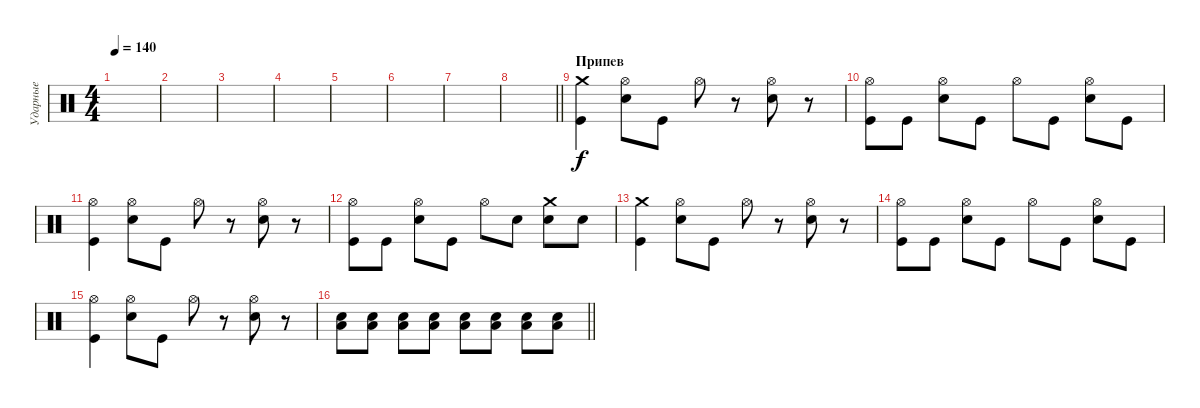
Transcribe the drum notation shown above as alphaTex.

\track ("Ударные" "Ударные") {instrument percussion}
\staff {score}
\articulation defaults
\ts (4 4)
\tempo 140
\clef neutral
\ks c
|
|
|
|
|
|
|
\barLineRight lightlight
|
\section ("" "Припев")
("Kick (hit)" "Crash medium (hit)").4 ("Electric Snare (hit)" "Hi-Hat (open)").8 "Kick (hit)".8 "Hi-Hat (open)".8 r.8 ("Electric Snare (hit)" "Hi-Hat (open)").8 r.8 |
("Kick (hit)" "Hi-Hat (open)").8 "Kick (hit)".8 ("Hi-Hat (open)" "Electric Snare (hit)").8 "Kick (hit)".8 "Hi-Hat (open)".8 "Kick (hit)".8 ("Electric Snare (hit)" "Hi-Hat (open)").8 "Kick (hit)".8 |
("Kick (hit)" "Hi-Hat (open)").4 ("Electric Snare (hit)" "Hi-Hat (open)").8 "Kick (hit)".8 "Hi-Hat (open)".8 r.8 ("Electric Snare (hit)" "Hi-Hat (open)").8 r.8 |
("Kick (hit)" "Hi-Hat (open)").8 "Kick (hit)".8 ("Hi-Hat (open)" "Electric Snare (hit)").8 "Kick (hit)".8 "Hi-Hat (open)".8 "Electric Snare (hit)".8 ("Electric Snare (hit)" "Crash medium (hit)").8 "Electric Snare (hit)".8 |
("Kick (hit)" "Crash medium (hit)").4 ("Electric Snare (hit)" "Hi-Hat (open)").8 "Kick (hit)".8 "Hi-Hat (open)".8 r.8 ("Electric Snare (hit)" "Hi-Hat (open)").8 r.8 |
("Kick (hit)" "Hi-Hat (open)").8 "Kick (hit)".8 ("Hi-Hat (open)" "Electric Snare (hit)").8 "Kick (hit)".8 "Hi-Hat (open)".8 "Kick (hit)".8 ("Electric Snare (hit)" "Hi-Hat (open)").8 "Kick (hit)".8 |
("Kick (hit)" "Hi-Hat (open)").4 ("Electric Snare (hit)" "Hi-Hat (open)").8 "Kick (hit)".8 "Hi-Hat (open)".8 r.8 ("Electric Snare (hit)" "Hi-Hat (open)").8 r.8 |
\barLineRight lightlight
("Low Floor Tom (hit)" "Electric Snare (hit)").8 ("Low Floor Tom (hit)" "Electric Snare (hit)").8 ("Low Floor Tom (hit)" "Electric Snare (hit)").8 ("Low Floor Tom (hit)" "Electric Snare (hit)").8 ("Low Floor Tom (hit)" "Electric Snare (hit)").8 ("Low Floor Tom (hit)" "Electric Snare (hit)").8 ("Low Floor Tom (hit)" "Electric Snare (hit)").8 ("Low Floor Tom (hit)" "Electric Snare (hit)").8
